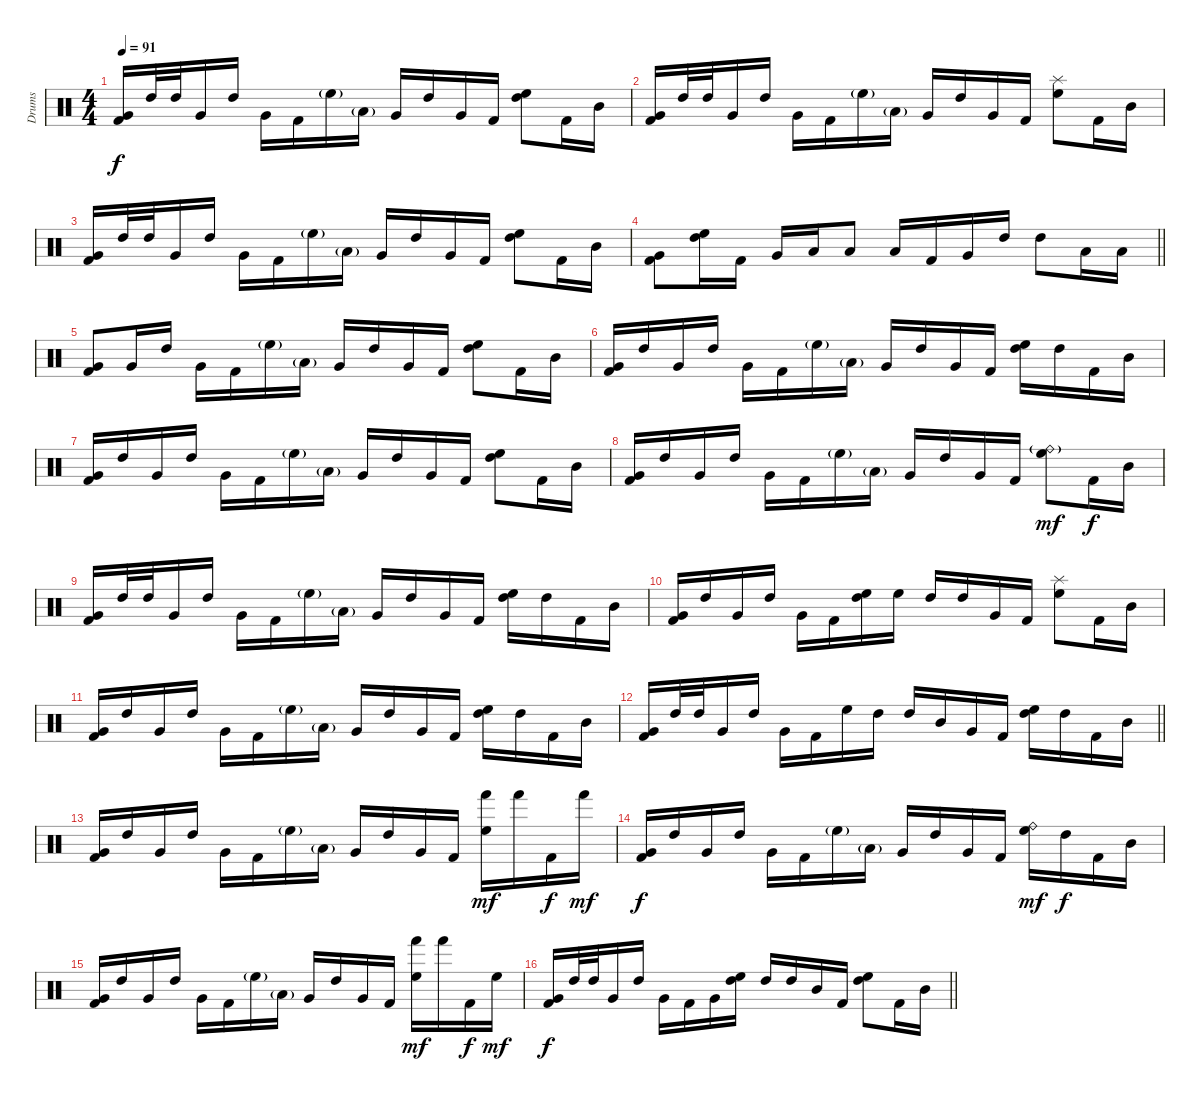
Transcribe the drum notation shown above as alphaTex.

\track ("Drums" "Drums") {instrument percussion}
\staff {score}
\articulation defaults
\ts (4 4)
\tempo 91
\clef neutral
\ks c
("Very Low Tom (hit)" "Kick (hit) 2").16{dy f} "High Tom (hit)".32 "High Tom (hit)".32 "Very Low Tom (hit)".16 "High Tom (hit)".16 "Very Low Tom (hit)".16 "Kick (hit) 2".16 "High Floor Tom (hit)"{g}.16 "Low Floor Tom (hit)"{g}.16 "Very Low Tom (hit)".16 "High Tom (hit)".16 "Very Low Tom (hit)".16 "Kick (hit) 2".16 ("High Floor Tom (hit)" "High Tom (hit)").8 "Kick (hit) 2".16 "Mid Tom (hit)".16 |
("Very Low Tom (hit)" "Kick (hit) 2").16 "High Tom (hit)".32 "High Tom (hit)".32 "Very Low Tom (hit)".16 "High Tom (hit)".16 "Very Low Tom (hit)".16 "Kick (hit) 2".16 "High Floor Tom (hit)"{g}.16 "Low Floor Tom (hit)"{g}.16 "Very Low Tom (hit)".16 "High Tom (hit)".16 "Very Low Tom (hit)".16 "Kick (hit) 2".16 ("Splash (hit)" "High Floor Tom (hit)").8 "Kick (hit) 2".16 "Mid Tom (hit)".16 |
("Very Low Tom (hit)" "Kick (hit) 2").16 "High Tom (hit)".32 "High Tom (hit)".32 "Very Low Tom (hit)".16 "High Tom (hit)".16 "Very Low Tom (hit)".16 "Kick (hit) 2".16 "High Floor Tom (hit)"{g}.16 "Low Floor Tom (hit)"{g}.16 "Very Low Tom (hit)".16 "High Tom (hit)".16 "Very Low Tom (hit)".16 "Kick (hit) 2".16 ("High Floor Tom (hit)" "High Tom (hit)").8 "Kick (hit) 2".16 "Mid Tom (hit)".16 |
\barLineRight lightlight
("Very Low Tom (hit)" "Kick (hit) 2").8 ("High Floor Tom (hit)" "High Tom (hit)").16 "Kick (hit) 2".16 "Very Low Tom (hit)".16 "Low Floor Tom (hit)".16 "Low Floor Tom (hit)".8 "Low Tom (hit)".16 "Kick (hit) 2".16 "Very Low Tom (hit)".16 "High Tom (hit)".16 "High Tom (hit)".8 "Low Tom (hit)".16 "Low Tom (hit)".16 |
\section ("" "")
("Very Low Tom (hit)" "Kick (hit) 2").8 "Very Low Tom (hit)".16 "High Tom (hit)".16 "Very Low Tom (hit)".16 "Kick (hit) 2".16 "High Floor Tom (hit)"{g}.16 "Low Floor Tom (hit)"{g}.16 "Very Low Tom (hit)".16 "High Tom (hit)".16 "Very Low Tom (hit)".16 "Kick (hit) 2".16 ("High Floor Tom (hit)" "High Tom (hit)").8 "Kick (hit) 2".16 "Mid Tom (hit)".16 |
("Very Low Tom (hit)" "Kick (hit) 2").16 "High Tom (hit)".16 "Very Low Tom (hit)".16 "High Tom (hit)".16 "Very Low Tom (hit)".16 "Kick (hit) 2".16 "High Floor Tom (hit)"{g}.16 "Low Floor Tom (hit)"{g}.16 "Very Low Tom (hit)".16 "High Tom (hit)".16 "Very Low Tom (hit)".16 "Kick (hit) 2".16 ("High Floor Tom (hit)" "High Tom (hit)").16 "High Tom (hit)".16 "Kick (hit) 2".16 "Mid Tom (hit)".16 |
("Very Low Tom (hit)" "Kick (hit) 2").16 "High Tom (hit)".16 "Very Low Tom (hit)".16 "High Tom (hit)".16 "Very Low Tom (hit)".16 "Kick (hit) 2".16 "High Floor Tom (hit)"{g}.16 "Low Floor Tom (hit)"{g}.16 "Very Low Tom (hit)".16 "High Tom (hit)".16 "Very Low Tom (hit)".16 "Kick (hit) 2".16 ("High Floor Tom (hit)" "High Tom (hit)").8 "Kick (hit) 2".16 "Mid Tom (hit)".16 |
("Very Low Tom (hit)" "Kick (hit) 2").16 "High Tom (hit)".16 "Very Low Tom (hit)".16 "High Tom (hit)".16 "Very Low Tom (hit)".16 "Kick (hit) 2".16 "High Floor Tom (hit)"{g}.16 "Low Floor Tom (hit)"{g}.16 "Very Low Tom (hit)".16 "High Tom (hit)".16 "Very Low Tom (hit)".16 "Kick (hit) 2".16 ("Ride (bell)"{g} "High Floor Tom (hit)").8{dy mf} "Kick (hit) 2".16{dy f} "Mid Tom (hit)".16 |
("Very Low Tom (hit)" "Kick (hit) 2").16 "High Tom (hit)".32 "High Tom (hit)".32 "Very Low Tom (hit)".16 "High Tom (hit)".16 "Very Low Tom (hit)".16 "Kick (hit) 2".16 "High Floor Tom (hit)"{g}.16 "Low Floor Tom (hit)"{g}.16 "Very Low Tom (hit)".16 "High Tom (hit)".16 "Very Low Tom (hit)".16 "Kick (hit) 2".16 ("High Floor Tom (hit)" "High Tom (hit)").16 "High Tom (hit)".16 "Kick (hit) 2".16 "Mid Tom (hit)".16 |
("Very Low Tom (hit)" "Kick (hit) 2").16 "High Tom (hit)".16 "Very Low Tom (hit)".16 "High Tom (hit)".16 "Very Low Tom (hit)".16 "Kick (hit) 2".16 ("High Floor Tom (hit)" "High Tom (hit)").16 "High Floor Tom (hit)".16 "High Tom (hit)".16 "High Tom (hit)".16 "Very Low Tom (hit)".16 "Kick (hit) 2".16 ("Splash (hit)" "High Floor Tom (hit)").8 "Kick (hit) 2".16 "Mid Tom (hit)".16 |
("Very Low Tom (hit)" "Kick (hit) 2").16 "High Tom (hit)".16 "Very Low Tom (hit)".16 "High Tom (hit)".16 "Very Low Tom (hit)".16 "Kick (hit) 2".16 "High Floor Tom (hit)"{g}.16 "Low Floor Tom (hit)"{g}.16 "Very Low Tom (hit)".16 "High Tom (hit)".16 "Very Low Tom (hit)".16 "Kick (hit) 2".16 ("High Floor Tom (hit)" "High Tom (hit)").16 "High Tom (hit)".16 "Kick (hit) 2".16 "Mid Tom (hit)".16 |
\barLineRight lightlight
("Very Low Tom (hit)" "Kick (hit) 2").16 "High Tom (hit)".32 "High Tom (hit)".32 "Very Low Tom (hit)".16 "High Tom (hit)".16 "Very Low Tom (hit)".16 "Kick (hit) 2".16 "High Floor Tom (hit)".16 "High Tom (hit)".16 "High Tom (hit)".16 "Mid Tom (hit)".16 "Very Low Tom (hit)".16 "Kick (hit) 2".16 ("High Floor Tom (hit)" "High Tom (hit)").16 "High Tom (hit)".16 "Kick (hit) 2".16 "Mid Tom (hit)".16 |
\section ("" "")
("Very Low Tom (hit)" "Kick (hit) 2").16 "High Tom (hit)".16 "Very Low Tom (hit)".16 "High Tom (hit)".16 "Very Low Tom (hit)".16 "Kick (hit) 2".16 "High Floor Tom (hit)"{g}.16 "Low Floor Tom (hit)"{g}.16 "Very Low Tom (hit)".16 "High Tom (hit)".16 "Very Low Tom (hit)".16 "Kick (hit) 2".16 ("Hand (hit)" "High Floor Tom (hit)").16{dy mf} "Hand (hit)".16 "Kick (hit) 2".16{dy f} "Hand (hit)".16{dy mf} |
("Very Low Tom (hit)" "Kick (hit) 2").16{dy f} "High Tom (hit)".16 "Very Low Tom (hit)".16 "High Tom (hit)".16 "Very Low Tom (hit)".16 "Kick (hit) 2".16 "High Floor Tom (hit)"{g}.16 "Low Floor Tom (hit)"{g}.16 "Very Low Tom (hit)".16 "High Tom (hit)".16 "Very Low Tom (hit)".16 "Kick (hit) 2".16 ("Ride (bell)" "High Floor Tom (hit)").16{dy mf} "High Tom (hit)".16{dy f} "Kick (hit) 2".16 "Mid Tom (hit)".16 |
("Very Low Tom (hit)" "Kick (hit) 2").16 "High Tom (hit)".16 "Very Low Tom (hit)".16 "High Tom (hit)".16 "Very Low Tom (hit)".16 "Kick (hit) 2".16 "High Floor Tom (hit)"{g}.16 "Low Floor Tom (hit)"{g}.16 "Very Low Tom (hit)".16 "High Tom (hit)".16 "Very Low Tom (hit)".16 "Kick (hit) 2".16 ("Hand (hit)" "High Floor Tom (hit)").16{dy mf} "Hand (hit)".16 "Kick (hit) 2".16{dy f} "High Floor Tom (hit)".16{dy mf} |
\barLineRight lightlight
("Very Low Tom (hit)" "Kick (hit) 2").16{dy f} "High Tom (hit)".32 "High Tom (hit)".32 "Very Low Tom (hit)".16 "High Tom (hit)".16 "Very Low Tom (hit)".16 "Kick (hit) 2".16 "Very Low Tom (hit)".16 ("High Floor Tom (hit)" "High Tom (hit)").16 "High Tom (hit)".16 "High Tom (hit)".16 "Mid Tom (hit)".16 "Kick (hit) 2".16 ("High Floor Tom (hit)" "High Tom (hit)").8 "Kick (hit) 2".16 "Mid Tom (hit)".16
